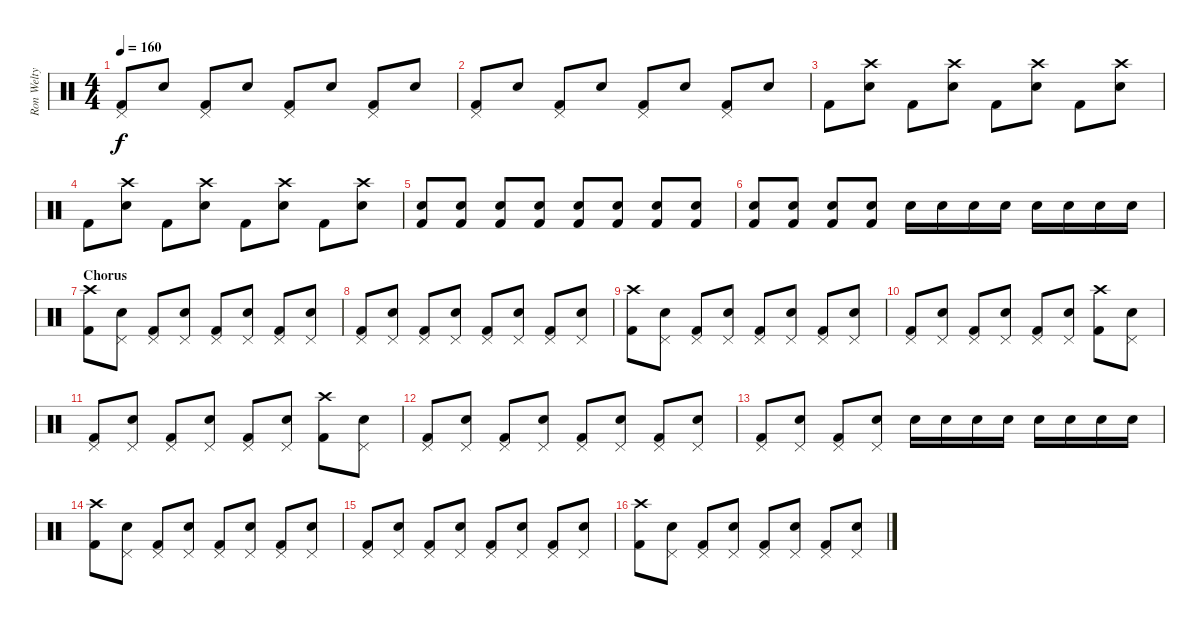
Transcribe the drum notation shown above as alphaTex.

\track ("Ron Welty" "Ron Welty") {instrument percussion}
\staff {score}
\articulation defaults
\ts (4 4)
\tempo 160
\clef neutral
\ks c
("Pedal Hi-Hat (hit)" "Kick (hit) 2").8{dy f} "Snare (hit) 2".8 ("Pedal Hi-Hat (hit)" "Kick (hit) 2").8 "Snare (hit) 2".8 ("Pedal Hi-Hat (hit)" "Kick (hit) 2").8 "Snare (hit) 2".8 ("Pedal Hi-Hat (hit)" "Kick (hit) 2").8 "Snare (hit) 2".8 |
("Pedal Hi-Hat (hit)" "Kick (hit) 2").8 "Snare (hit) 2".8 ("Pedal Hi-Hat (hit)" "Kick (hit) 2").8 "Snare (hit) 2".8 ("Pedal Hi-Hat (hit)" "Kick (hit) 2").8 "Snare (hit) 2".8 ("Pedal Hi-Hat (hit)" "Kick (hit) 2").8 "Snare (hit) 2".8 |
"Kick (hit) 2".8 ("Crash high (hit)" "Snare (hit) 2").8 "Kick (hit) 2".8 ("Crash high (hit)" "Snare (hit) 2").8 "Kick (hit) 2".8 ("Crash high (hit)" "Snare (hit) 2").8 "Kick (hit) 2".8 ("Crash high (hit)" "Snare (hit) 2").8 |
"Kick (hit) 2".8 ("Crash high (hit)" "Snare (hit) 2").8 "Kick (hit) 2".8 ("Crash high (hit)" "Snare (hit) 2").8 "Kick (hit) 2".8 ("Crash high (hit)" "Snare (hit) 2").8 "Kick (hit) 2".8 ("Crash high (hit)" "Snare (hit) 2").8 |
("Snare (hit) 2" "Kick (hit) 2").8 ("Snare (hit) 2" "Kick (hit) 2").8 ("Snare (hit) 2" "Kick (hit) 2").8 ("Snare (hit) 2" "Kick (hit) 2").8 ("Snare (hit) 2" "Kick (hit) 2").8 ("Snare (hit) 2" "Kick (hit) 2").8 ("Snare (hit) 2" "Kick (hit) 2").8 ("Snare (hit) 2" "Kick (hit) 2").8 |
("Snare (hit) 2" "Kick (hit) 2").8 ("Snare (hit) 2" "Kick (hit) 2").8 ("Snare (hit) 2" "Kick (hit) 2").8 ("Snare (hit) 2" "Kick (hit) 2").8 "Snare (hit) 2".16 "Snare (hit) 2".16 "Snare (hit) 2".16 "Snare (hit) 2".16 "Snare (hit) 2".16 "Snare (hit) 2".16 "Snare (hit) 2".16 "Snare (hit) 2".16 |
\section ("" "Chorus")
("Crash high (hit)" "Kick (hit) 2").8 ("Pedal Hi-Hat (hit)" "Snare (hit) 2").8 ("Pedal Hi-Hat (hit)" "Kick (hit) 2").8 ("Pedal Hi-Hat (hit)" "Snare (hit) 2").8 ("Pedal Hi-Hat (hit)" "Kick (hit) 2").8 ("Pedal Hi-Hat (hit)" "Snare (hit) 2").8 ("Pedal Hi-Hat (hit)" "Kick (hit) 2").8 ("Pedal Hi-Hat (hit)" "Snare (hit) 2").8 |
("Pedal Hi-Hat (hit)" "Kick (hit) 2").8 ("Pedal Hi-Hat (hit)" "Snare (hit) 2").8 ("Pedal Hi-Hat (hit)" "Kick (hit) 2").8 ("Pedal Hi-Hat (hit)" "Snare (hit) 2").8 ("Pedal Hi-Hat (hit)" "Kick (hit) 2").8 ("Pedal Hi-Hat (hit)" "Snare (hit) 2").8 ("Pedal Hi-Hat (hit)" "Kick (hit) 2").8 ("Pedal Hi-Hat (hit)" "Snare (hit) 2").8 |
("Crash high (hit)" "Kick (hit) 2").8 ("Pedal Hi-Hat (hit)" "Snare (hit) 2").8 ("Pedal Hi-Hat (hit)" "Kick (hit) 2").8 ("Pedal Hi-Hat (hit)" "Snare (hit) 2").8 ("Pedal Hi-Hat (hit)" "Kick (hit) 2").8 ("Pedal Hi-Hat (hit)" "Snare (hit) 2").8 ("Pedal Hi-Hat (hit)" "Kick (hit) 2").8 ("Pedal Hi-Hat (hit)" "Snare (hit) 2").8 |
("Pedal Hi-Hat (hit)" "Kick (hit) 2").8 ("Pedal Hi-Hat (hit)" "Snare (hit) 2").8 ("Pedal Hi-Hat (hit)" "Kick (hit) 2").8 ("Pedal Hi-Hat (hit)" "Snare (hit) 2").8 ("Pedal Hi-Hat (hit)" "Kick (hit) 2").8 ("Pedal Hi-Hat (hit)" "Snare (hit) 2").8 ("Crash high (hit)" "Kick (hit) 2").8 ("Pedal Hi-Hat (hit)" "Snare (hit) 2").8 |
("Pedal Hi-Hat (hit)" "Kick (hit) 2").8 ("Pedal Hi-Hat (hit)" "Snare (hit) 2").8 ("Pedal Hi-Hat (hit)" "Kick (hit) 2").8 ("Pedal Hi-Hat (hit)" "Snare (hit) 2").8 ("Pedal Hi-Hat (hit)" "Kick (hit) 2").8 ("Pedal Hi-Hat (hit)" "Snare (hit) 2").8 ("Crash high (hit)" "Kick (hit) 2").8 ("Pedal Hi-Hat (hit)" "Snare (hit) 2").8 |
("Pedal Hi-Hat (hit)" "Kick (hit) 2").8 ("Pedal Hi-Hat (hit)" "Snare (hit) 2").8 ("Pedal Hi-Hat (hit)" "Kick (hit) 2").8 ("Pedal Hi-Hat (hit)" "Snare (hit) 2").8 ("Pedal Hi-Hat (hit)" "Kick (hit) 2").8 ("Pedal Hi-Hat (hit)" "Snare (hit) 2").8 ("Pedal Hi-Hat (hit)" "Kick (hit) 2").8 ("Pedal Hi-Hat (hit)" "Snare (hit) 2").8 |
("Pedal Hi-Hat (hit)" "Kick (hit) 2").8 ("Pedal Hi-Hat (hit)" "Snare (hit) 2").8 ("Pedal Hi-Hat (hit)" "Kick (hit) 2").8 ("Pedal Hi-Hat (hit)" "Snare (hit) 2").8 "Snare (hit) 2".16 "Snare (hit) 2".16 "Snare (hit) 2".16 "Snare (hit) 2".16 "Snare (hit) 2".16 "Snare (hit) 2".16 "Snare (hit) 2".16 "Snare (hit) 2".16 |
("Crash high (hit)" "Kick (hit) 2").8 ("Pedal Hi-Hat (hit)" "Snare (hit) 2").8 ("Pedal Hi-Hat (hit)" "Kick (hit) 2").8 ("Pedal Hi-Hat (hit)" "Snare (hit) 2").8 ("Pedal Hi-Hat (hit)" "Kick (hit) 2").8 ("Pedal Hi-Hat (hit)" "Snare (hit) 2").8 ("Pedal Hi-Hat (hit)" "Kick (hit) 2").8 ("Pedal Hi-Hat (hit)" "Snare (hit) 2").8 |
("Pedal Hi-Hat (hit)" "Kick (hit) 2").8 ("Pedal Hi-Hat (hit)" "Snare (hit) 2").8 ("Pedal Hi-Hat (hit)" "Kick (hit) 2").8 ("Pedal Hi-Hat (hit)" "Snare (hit) 2").8 ("Pedal Hi-Hat (hit)" "Kick (hit) 2").8 ("Pedal Hi-Hat (hit)" "Snare (hit) 2").8 ("Pedal Hi-Hat (hit)" "Kick (hit) 2").8 ("Pedal Hi-Hat (hit)" "Snare (hit) 2").8 |
("Crash high (hit)" "Kick (hit) 2").8 ("Pedal Hi-Hat (hit)" "Snare (hit) 2").8 ("Pedal Hi-Hat (hit)" "Kick (hit) 2").8 ("Pedal Hi-Hat (hit)" "Snare (hit) 2").8 ("Pedal Hi-Hat (hit)" "Kick (hit) 2").8 ("Pedal Hi-Hat (hit)" "Snare (hit) 2").8 ("Pedal Hi-Hat (hit)" "Kick (hit) 2").8 ("Pedal Hi-Hat (hit)" "Snare (hit) 2").8
